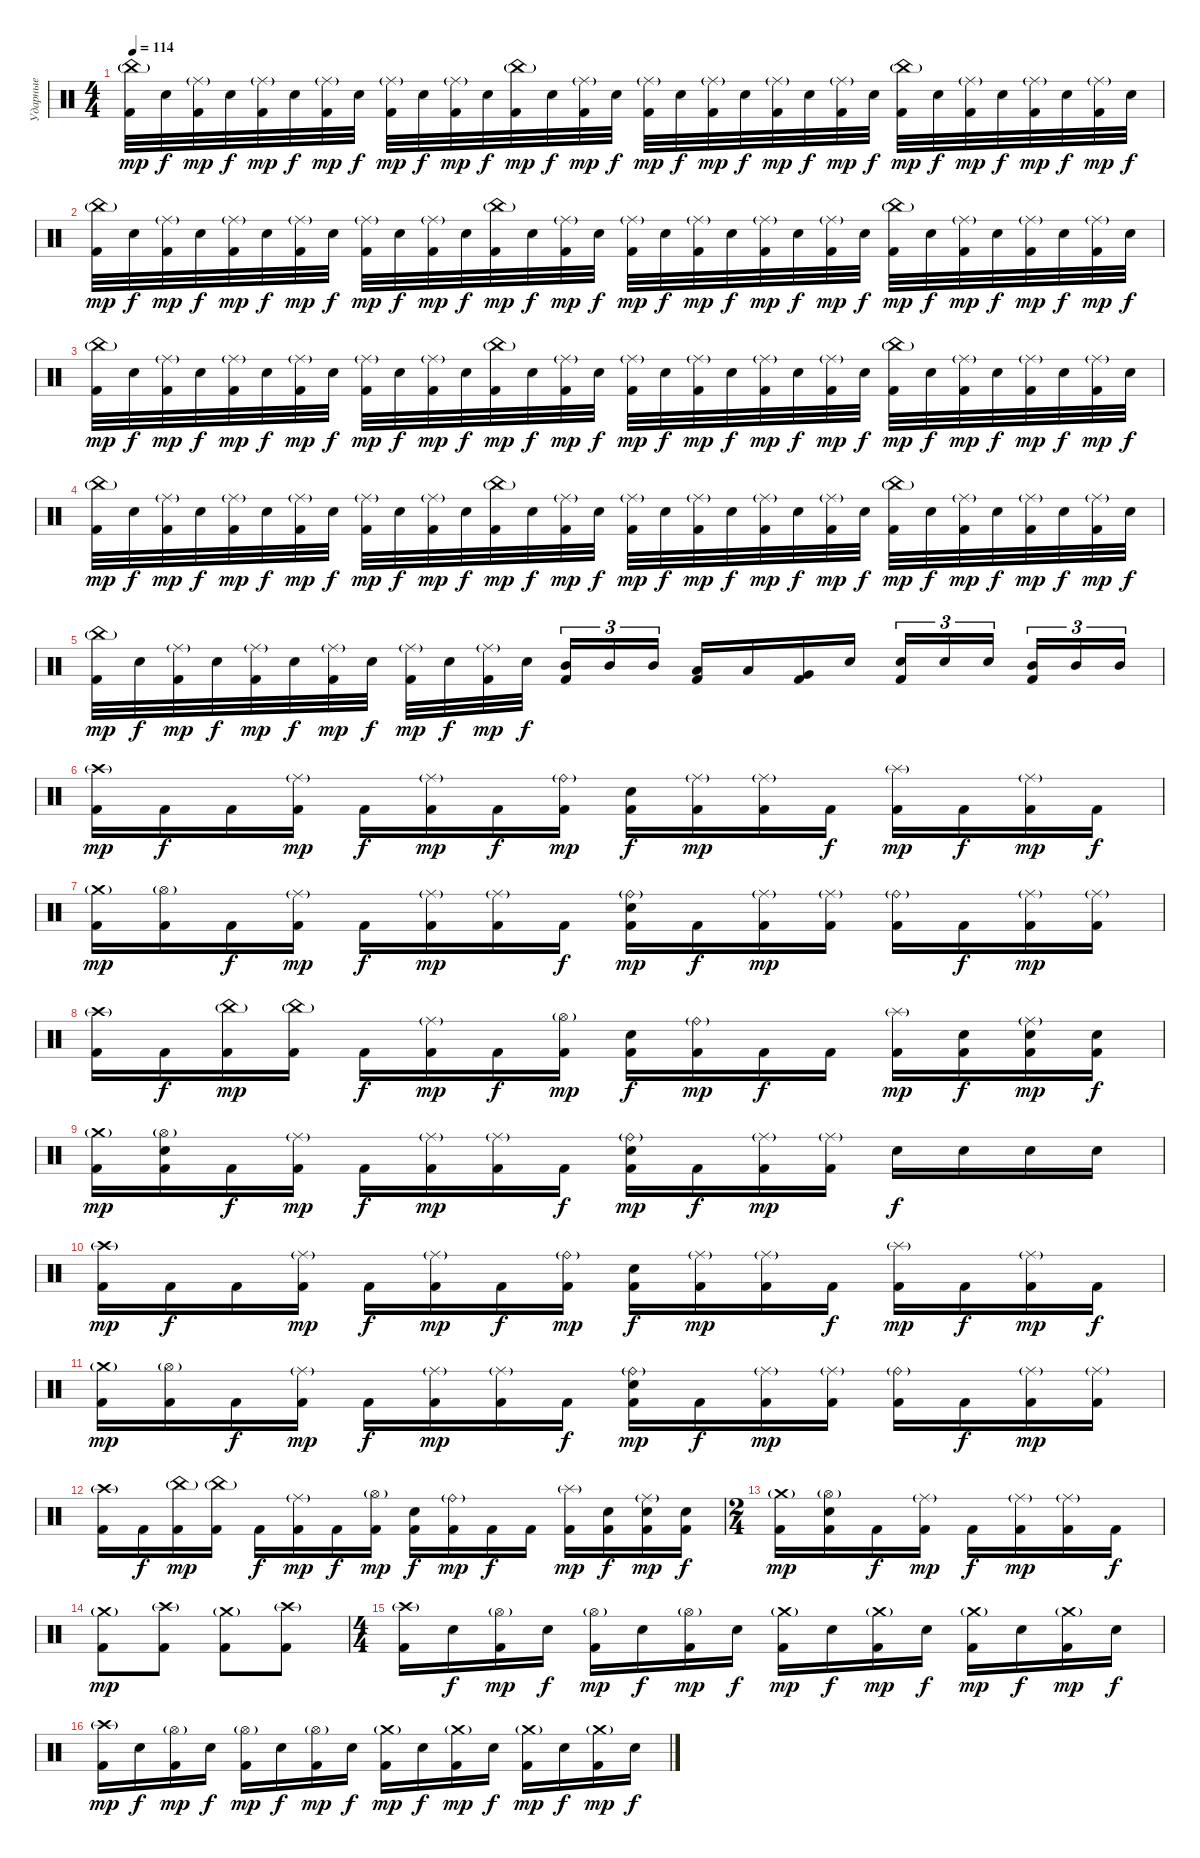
\track ("Ударные" "Ударные") {instrument percussion}
\staff {score}
\articulation defaults
\ts (4 4)
\tempo 114
\clef neutral
\ks c
("China (hit)"{g} "Kick (hit) 2").32{dy mp} "Electric Snare (hit)".32{dy f} ("Ride (middle)"{g} "Kick (hit) 2").32{dy mp} "Electric Snare (hit)".32{dy f} ("Ride (middle)"{g} "Kick (hit) 2").32{dy mp} "Electric Snare (hit)".32{dy f} ("Ride (middle)"{g} "Kick (hit) 2").32{dy mp} "Electric Snare (hit)".32{dy f} ("Ride (middle)"{g} "Kick (hit) 2").32{dy mp} "Electric Snare (hit)".32{dy f} ("Ride (middle)"{g} "Kick (hit) 2").32{dy mp} "Electric Snare (hit)".32{dy f} ("China (hit)"{g} "Kick (hit) 2").32{dy mp} "Electric Snare (hit)".32{dy f} ("Ride (middle)"{g} "Kick (hit) 2").32{dy mp} "Electric Snare (hit)".32{dy f} ("Ride (middle)"{g} "Kick (hit) 2").32{dy mp} "Electric Snare (hit)".32{dy f} ("Ride (middle)"{g} "Kick (hit) 2").32{dy mp} "Electric Snare (hit)".32{dy f} ("Ride (middle)"{g} "Kick (hit) 2").32{dy mp} "Electric Snare (hit)".32{dy f} ("Ride (middle)"{g} "Kick (hit) 2").32{dy mp} "Electric Snare (hit)".32{dy f} ("China (hit)"{g} "Kick (hit) 2").32{dy mp} "Electric Snare (hit)".32{dy f} ("Ride (middle)"{g} "Kick (hit) 2").32{dy mp} "Electric Snare (hit)".32{dy f} ("Ride (middle)"{g} "Kick (hit) 2").32{dy mp} "Electric Snare (hit)".32{dy f} ("Ride (middle)"{g} "Kick (hit) 2").32{dy mp} "Electric Snare (hit)".32{dy f} |
("China (hit)"{g} "Kick (hit) 2").32{dy mp} "Electric Snare (hit)".32{dy f} ("Ride (middle)"{g} "Kick (hit) 2").32{dy mp} "Electric Snare (hit)".32{dy f} ("Ride (middle)"{g} "Kick (hit) 2").32{dy mp} "Electric Snare (hit)".32{dy f} ("Ride (middle)"{g} "Kick (hit) 2").32{dy mp} "Electric Snare (hit)".32{dy f} ("Ride (middle)"{g} "Kick (hit) 2").32{dy mp} "Electric Snare (hit)".32{dy f} ("Ride (middle)"{g} "Kick (hit) 2").32{dy mp} "Electric Snare (hit)".32{dy f} ("China (hit)"{g} "Kick (hit) 2").32{dy mp} "Electric Snare (hit)".32{dy f} ("Ride (middle)"{g} "Kick (hit) 2").32{dy mp} "Electric Snare (hit)".32{dy f} ("Ride (middle)"{g} "Kick (hit) 2").32{dy mp} "Electric Snare (hit)".32{dy f} ("Ride (middle)"{g} "Kick (hit) 2").32{dy mp} "Electric Snare (hit)".32{dy f} ("Ride (middle)"{g} "Kick (hit) 2").32{dy mp} "Electric Snare (hit)".32{dy f} ("Ride (middle)"{g} "Kick (hit) 2").32{dy mp} "Electric Snare (hit)".32{dy f} ("China (hit)"{g} "Kick (hit) 2").32{dy mp} "Electric Snare (hit)".32{dy f} ("Ride (middle)"{g} "Kick (hit) 2").32{dy mp} "Electric Snare (hit)".32{dy f} ("Ride (middle)"{g} "Kick (hit) 2").32{dy mp} "Electric Snare (hit)".32{dy f} ("Ride (middle)"{g} "Kick (hit) 2").32{dy mp} "Electric Snare (hit)".32{dy f} |
("China (hit)"{g} "Kick (hit) 2").32{dy mp} "Electric Snare (hit)".32{dy f} ("Ride (middle)"{g} "Kick (hit) 2").32{dy mp} "Electric Snare (hit)".32{dy f} ("Ride (middle)"{g} "Kick (hit) 2").32{dy mp} "Electric Snare (hit)".32{dy f} ("Ride (middle)"{g} "Kick (hit) 2").32{dy mp} "Electric Snare (hit)".32{dy f} ("Ride (middle)"{g} "Kick (hit) 2").32{dy mp} "Electric Snare (hit)".32{dy f} ("Ride (middle)"{g} "Kick (hit) 2").32{dy mp} "Electric Snare (hit)".32{dy f} ("China (hit)"{g} "Kick (hit) 2").32{dy mp} "Electric Snare (hit)".32{dy f} ("Ride (middle)"{g} "Kick (hit) 2").32{dy mp} "Electric Snare (hit)".32{dy f} ("Ride (middle)"{g} "Kick (hit) 2").32{dy mp} "Electric Snare (hit)".32{dy f} ("Ride (middle)"{g} "Kick (hit) 2").32{dy mp} "Electric Snare (hit)".32{dy f} ("Ride (middle)"{g} "Kick (hit) 2").32{dy mp} "Electric Snare (hit)".32{dy f} ("Ride (middle)"{g} "Kick (hit) 2").32{dy mp} "Electric Snare (hit)".32{dy f} ("China (hit)"{g} "Kick (hit) 2").32{dy mp} "Electric Snare (hit)".32{dy f} ("Ride (middle)"{g} "Kick (hit) 2").32{dy mp} "Electric Snare (hit)".32{dy f} ("Ride (middle)"{g} "Kick (hit) 2").32{dy mp} "Electric Snare (hit)".32{dy f} ("Ride (middle)"{g} "Kick (hit) 2").32{dy mp} "Electric Snare (hit)".32{dy f} |
("China (hit)"{g} "Kick (hit) 2").32{dy mp} "Electric Snare (hit)".32{dy f} ("Ride (middle)"{g} "Kick (hit) 2").32{dy mp} "Electric Snare (hit)".32{dy f} ("Ride (middle)"{g} "Kick (hit) 2").32{dy mp} "Electric Snare (hit)".32{dy f} ("Ride (middle)"{g} "Kick (hit) 2").32{dy mp} "Electric Snare (hit)".32{dy f} ("Ride (middle)"{g} "Kick (hit) 2").32{dy mp} "Electric Snare (hit)".32{dy f} ("Ride (middle)"{g} "Kick (hit) 2").32{dy mp} "Electric Snare (hit)".32{dy f} ("China (hit)"{g} "Kick (hit) 2").32{dy mp} "Electric Snare (hit)".32{dy f} ("Ride (middle)"{g} "Kick (hit) 2").32{dy mp} "Electric Snare (hit)".32{dy f} ("Ride (middle)"{g} "Kick (hit) 2").32{dy mp} "Electric Snare (hit)".32{dy f} ("Ride (middle)"{g} "Kick (hit) 2").32{dy mp} "Electric Snare (hit)".32{dy f} ("Ride (middle)"{g} "Kick (hit) 2").32{dy mp} "Electric Snare (hit)".32{dy f} ("Ride (middle)"{g} "Kick (hit) 2").32{dy mp} "Electric Snare (hit)".32{dy f} ("China (hit)"{g} "Kick (hit) 2").32{dy mp} "Electric Snare (hit)".32{dy f} ("Ride (middle)"{g} "Kick (hit) 2").32{dy mp} "Electric Snare (hit)".32{dy f} ("Ride (middle)"{g} "Kick (hit) 2").32{dy mp} "Electric Snare (hit)".32{dy f} ("Ride (middle)"{g} "Kick (hit) 2").32{dy mp} "Electric Snare (hit)".32{dy f} |
("China (hit)"{g} "Kick (hit) 2").32{dy mp} "Electric Snare (hit)".32{dy f} ("Ride (middle)"{g} "Kick (hit) 2").32{dy mp} "Electric Snare (hit)".32{dy f} ("Ride (middle)"{g} "Kick (hit) 2").32{dy mp} "Electric Snare (hit)".32{dy f} ("Ride (middle)"{g} "Kick (hit) 2").32{dy mp} "Electric Snare (hit)".32{dy f} ("Ride (middle)"{g} "Kick (hit) 2").32{dy mp} "Electric Snare (hit)".32{dy f} ("Ride (middle)"{g} "Kick (hit) 2").32{dy mp} "Electric Snare (hit)".32{dy f} ("Mid Tom (hit)" "Kick (hit) 2").16{tu (3 2)} "Mid Tom (hit)".16{tu (3 2)} "Mid Tom (hit)".16{tu (3 2)} ("Low Tom (hit)" "Kick (hit) 2").16 "Low Tom (hit)".16 ("Very Low Tom (hit)" "Kick (hit) 2").16 "Electric Snare (hit)".16 ("Electric Snare (hit)" "Kick (hit) 2").16{tu (3 2)} "Electric Snare (hit)".16{tu (3 2)} "Electric Snare (hit)".16{tu (3 2)} ("Mid Tom (hit)" "Kick (hit) 2").16{tu (3 2)} "Mid Tom (hit)".16{tu (3 2)} "Mid Tom (hit)".16{tu (3 2)} |
("Crash high (hit)"{g} "Kick (hit) 2").16{dy mp} "Kick (hit) 2".16{dy f} "Kick (hit) 2".16 ("Ride (middle)"{g} "Kick (hit) 2").16{dy mp} "Kick (hit) 2".16{dy f} ("Ride (middle)"{g} "Kick (hit) 2").16{dy mp} "Kick (hit) 2".16{dy f} ("Ride (bell)"{g} "Kick (hit) 2").16{dy mp} ("Electric Snare (hit)" "Kick (hit) 2").16{dy f} ("Ride (middle)"{g} "Kick (hit) 2").16{dy mp} ("Ride (middle)"{g} "Kick (hit) 2").16 "Kick (hit) 2".16{dy f} ("Splash (hit)"{g} "Kick (hit) 2").16{dy mp} "Kick (hit) 2".16{dy f} ("Ride (middle)"{g} "Kick (hit) 2").16{dy mp} "Kick (hit) 2".16{dy f} |
("Crash medium (hit)"{g} "Kick (hit) 2").16{dy mp} ("Hi-Hat (open)"{g} "Kick (hit) 2").16 "Kick (hit) 2".16{dy f} ("Ride (middle)"{g} "Kick (hit) 2").16{dy mp} "Kick (hit) 2".16{dy f} ("Ride (middle)"{g} "Kick (hit) 2").16{dy mp} ("Ride (middle)"{g} "Kick (hit) 2").16 "Kick (hit) 2".16{dy f} ("Ride (bell)"{g} "Electric Snare (hit)" "Kick (hit) 2").16{dy mp} "Kick (hit) 2".16{dy f} ("Ride (middle)"{g} "Kick (hit) 2").16{dy mp} ("Ride (middle)"{g} "Kick (hit) 2").16 ("Ride (bell)"{g} "Kick (hit) 2").16 "Kick (hit) 2".16{dy f} ("Ride (middle)"{g} "Kick (hit) 2").16{dy mp} ("Ride (middle)"{g} "Kick (hit) 2").16 |
("Crash high (hit)"{g} "Kick (hit) 2").16 "Kick (hit) 2".16{dy f} ("China (hit)"{g} "Kick (hit) 2").16{dy mp} ("China (hit)"{g} "Kick (hit) 2").16 "Kick (hit) 2".16{dy f} ("Ride (middle)"{g} "Kick (hit) 2").16{dy mp} "Kick (hit) 2".16{dy f} ("Hi-Hat (open)"{g} "Kick (hit) 2").16{dy mp} ("Electric Snare (hit)" "Kick (hit) 2").16{dy f} ("Ride (bell)"{g} "Kick (hit) 2").16{dy mp} "Kick (hit) 2".16{dy f} "Kick (hit) 2".16 ("Splash (hit)"{g} "Kick (hit) 2").16{dy mp} ("Electric Snare (hit)" "Kick (hit) 2").16{dy f} ("Ride (middle)"{g} "Electric Snare (hit)" "Kick (hit) 2").16{dy mp} ("Electric Snare (hit)" "Kick (hit) 2").16{dy f} |
("Crash medium (hit)"{g} "Kick (hit) 2").16{dy mp} ("Hi-Hat (open)"{g} "Electric Snare (hit)" "Kick (hit) 2").16 "Kick (hit) 2".16{dy f} ("Ride (middle)"{g} "Kick (hit) 2").16{dy mp} "Kick (hit) 2".16{dy f} ("Ride (middle)"{g} "Kick (hit) 2").16{dy mp} ("Ride (middle)"{g} "Kick (hit) 2").16 "Kick (hit) 2".16{dy f} ("Ride (bell)"{g} "Electric Snare (hit)" "Kick (hit) 2").16{dy mp} "Kick (hit) 2".16{dy f} ("Ride (middle)"{g} "Kick (hit) 2").16{dy mp} ("Ride (middle)"{g} "Kick (hit) 2").16 "Electric Snare (hit)".16{dy f} "Electric Snare (hit)".16 "Electric Snare (hit)".16 "Electric Snare (hit)".16 |
("Crash high (hit)"{g} "Kick (hit) 2").16{dy mp} "Kick (hit) 2".16{dy f} "Kick (hit) 2".16 ("Ride (middle)"{g} "Kick (hit) 2").16{dy mp} "Kick (hit) 2".16{dy f} ("Ride (middle)"{g} "Kick (hit) 2").16{dy mp} "Kick (hit) 2".16{dy f} ("Ride (bell)"{g} "Kick (hit) 2").16{dy mp} ("Electric Snare (hit)" "Kick (hit) 2").16{dy f} ("Ride (middle)"{g} "Kick (hit) 2").16{dy mp} ("Ride (middle)"{g} "Kick (hit) 2").16 "Kick (hit) 2".16{dy f} ("Splash (hit)"{g} "Kick (hit) 2").16{dy mp} "Kick (hit) 2".16{dy f} ("Ride (middle)"{g} "Kick (hit) 2").16{dy mp} "Kick (hit) 2".16{dy f} |
("Crash medium (hit)"{g} "Kick (hit) 2").16{dy mp} ("Hi-Hat (open)"{g} "Kick (hit) 2").16 "Kick (hit) 2".16{dy f} ("Ride (middle)"{g} "Kick (hit) 2").16{dy mp} "Kick (hit) 2".16{dy f} ("Ride (middle)"{g} "Kick (hit) 2").16{dy mp} ("Ride (middle)"{g} "Kick (hit) 2").16 "Kick (hit) 2".16{dy f} ("Ride (bell)"{g} "Electric Snare (hit)" "Kick (hit) 2").16{dy mp} "Kick (hit) 2".16{dy f} ("Ride (middle)"{g} "Kick (hit) 2").16{dy mp} ("Ride (middle)"{g} "Kick (hit) 2").16 ("Ride (bell)"{g} "Kick (hit) 2").16 "Kick (hit) 2".16{dy f} ("Ride (middle)"{g} "Kick (hit) 2").16{dy mp} ("Ride (middle)"{g} "Kick (hit) 2").16 |
("Crash high (hit)"{g} "Kick (hit) 2").16 "Kick (hit) 2".16{dy f} ("China (hit)"{g} "Kick (hit) 2").16{dy mp} ("China (hit)"{g} "Kick (hit) 2").16 "Kick (hit) 2".16{dy f} ("Ride (middle)"{g} "Kick (hit) 2").16{dy mp} "Kick (hit) 2".16{dy f} ("Hi-Hat (open)"{g} "Kick (hit) 2").16{dy mp} ("Electric Snare (hit)" "Kick (hit) 2").16{dy f} ("Ride (bell)"{g} "Kick (hit) 2").16{dy mp} "Kick (hit) 2".16{dy f} "Kick (hit) 2".16 ("Splash (hit)"{g} "Kick (hit) 2").16{dy mp} ("Electric Snare (hit)" "Kick (hit) 2").16{dy f} ("Ride (middle)"{g} "Electric Snare (hit)" "Kick (hit) 2").16{dy mp} ("Electric Snare (hit)" "Kick (hit) 2").16{dy f} |
\ts (2 4)
("Crash medium (hit)"{g} "Kick (hit) 2").16{dy mp} ("Hi-Hat (open)"{g} "Electric Snare (hit)" "Kick (hit) 2").16 "Kick (hit) 2".16{dy f} ("Ride (middle)"{g} "Kick (hit) 2").16{dy mp} "Kick (hit) 2".16{dy f} ("Ride (middle)"{g} "Kick (hit) 2").16{dy mp} ("Ride (middle)"{g} "Kick (hit) 2").16 "Kick (hit) 2".16{dy f} |
("Crash medium (hit)"{g} "Kick (hit) 2").8{dy mp} ("Crash high (hit)"{g} "Kick (hit) 2").8 ("Crash medium (hit)"{g} "Kick (hit) 2").8 ("Crash high (hit)"{g} "Kick (hit) 2").8 |
\ts (4 4)
("Crash high (hit)"{g} "Kick (hit) 2").16 "Electric Snare (hit)".16{dy f} ("Hi-Hat (open)"{g} "Kick (hit) 2").16{dy mp} "Electric Snare (hit)".16{dy f} ("Hi-Hat (open)"{g} "Kick (hit) 2").16{dy mp} "Electric Snare (hit)".16{dy f} ("Hi-Hat (open)"{g} "Kick (hit) 2").16{dy mp} "Electric Snare (hit)".16{dy f} ("Crash medium (hit)"{g} "Kick (hit) 2").16{dy mp} "Electric Snare (hit)".16{dy f} ("Crash medium (hit)"{g} "Kick (hit) 2").16{dy mp} "Electric Snare (hit)".16{dy f} ("Crash medium (hit)"{g} "Kick (hit) 2").16{dy mp} "Electric Snare (hit)".16{dy f} ("Crash medium (hit)"{g} "Kick (hit) 2").16{dy mp} "Electric Snare (hit)".16{dy f} |
("Crash high (hit)"{g} "Kick (hit) 2").16{dy mp} "Electric Snare (hit)".16{dy f} ("Hi-Hat (open)"{g} "Kick (hit) 2").16{dy mp} "Electric Snare (hit)".16{dy f} ("Hi-Hat (open)"{g} "Kick (hit) 2").16{dy mp} "Electric Snare (hit)".16{dy f} ("Hi-Hat (open)"{g} "Kick (hit) 2").16{dy mp} "Electric Snare (hit)".16{dy f} ("Crash medium (hit)"{g} "Kick (hit) 2").16{dy mp} "Electric Snare (hit)".16{dy f} ("Crash medium (hit)"{g} "Kick (hit) 2").16{dy mp} "Electric Snare (hit)".16{dy f} ("Crash medium (hit)"{g} "Kick (hit) 2").16{dy mp} "Electric Snare (hit)".16{dy f} ("Crash medium (hit)"{g} "Kick (hit) 2").16{dy mp} "Electric Snare (hit)".16{dy f}
